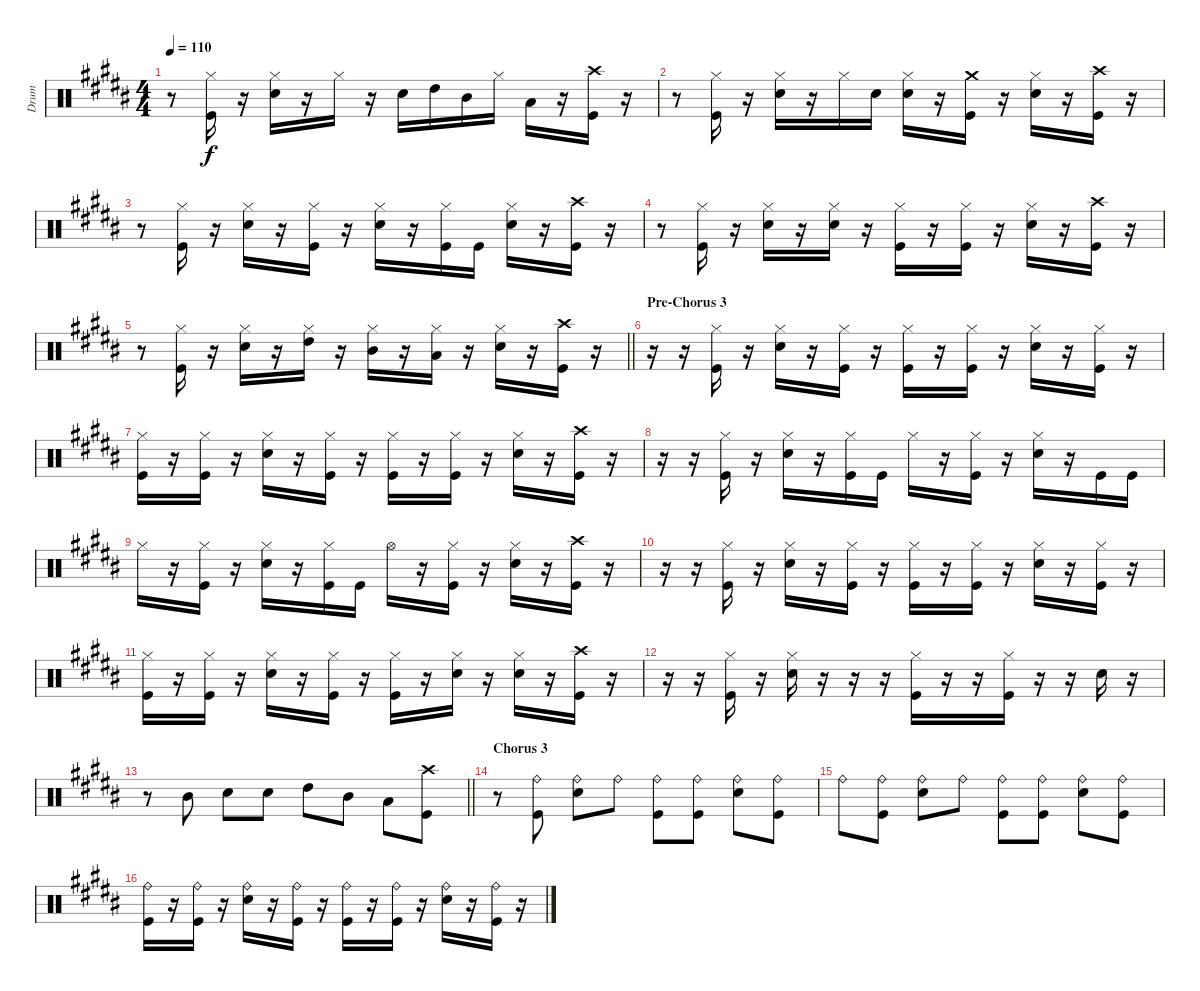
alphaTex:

\track ("Drum" "Drum") {instrument percussion}
\staff {score}
\articulation defaults
\ts (4 4)
\tempo 110
\clef neutral
\ks g#minor
r.8{dy f} ("Kick (hit)" "Hi-Hat (closed)").16 r.16 ("Snare (hit) 2" "Hi-Hat (closed)").16 r.16 "Hi-Hat (closed)".16 r.16 "Snare (hit) 2".16 "High Tom (hit)".16 "Mid Tom (hit)".16 "Hi-Hat (closed)".16 "Low Tom (hit)".16 r.16 ("Kick (hit)" "Crash high (hit)").16 r.16 |
r.8 ("Kick (hit)" "Hi-Hat (closed)").16 r.16 ("Snare (hit) 2" "Hi-Hat (closed)").16 r.16 "Hi-Hat (closed)".16 "Snare (hit) 2".16 ("Snare (hit) 2" "Hi-Hat (closed)").16 r.16 ("Kick (hit)" "Crash medium (hit)").16 r.16 ("Snare (hit) 2" "Hi-Hat (closed)").16 r.16 ("Kick (hit)" "Crash high (hit)").16 r.16 |
r.8 ("Kick (hit)" "Hi-Hat (closed)").16 r.16 ("Snare (hit) 2" "Hi-Hat (closed)").16 r.16 ("Kick (hit)" "Hi-Hat (closed)").16 r.16 ("Snare (hit) 2" "Hi-Hat (closed)").16 r.16 ("Kick (hit)" "Hi-Hat (closed)").16 "Kick (hit)".16 ("Snare (hit) 2" "Hi-Hat (closed)").16 r.16 ("Kick (hit)" "Crash high (hit)").16 r.16 |
r.8 ("Kick (hit)" "Hi-Hat (closed)").16 r.16 ("Snare (hit) 2" "Hi-Hat (closed)").16 r.16 ("Snare (hit) 2" "Hi-Hat (closed)").16 r.16 ("Kick (hit)" "Hi-Hat (closed)").16 r.16 ("Kick (hit)" "Hi-Hat (closed)").16 r.16 ("Snare (hit) 2" "Hi-Hat (closed)").16 r.16 ("Kick (hit)" "Crash high (hit)").16 r.16 |
\barLineRight lightlight
r.8 ("Kick (hit)" "Hi-Hat (closed)").16 r.16 ("Snare (hit) 2" "Hi-Hat (closed)").16 r.16 ("High Tom (hit)" "Hi-Hat (closed)").16 r.16 ("Mid Tom (hit)" "Hi-Hat (closed)").16 r.16 ("Low Tom (hit)" "Hi-Hat (closed)").16 r.16 ("Snare (hit) 2" "Hi-Hat (closed)").16 r.16 ("Kick (hit)" "Crash high (hit)").16 r.16 |
\section ("" "Pre-Chorus 3")
\ks b
r.16 r.16 ("Kick (hit)" "Hi-Hat (closed)").16 r.16 ("Snare (hit) 2" "Hi-Hat (closed)").16 r.16 ("Kick (hit)" "Hi-Hat (closed)").16 r.16 ("Kick (hit)" "Hi-Hat (closed)").16 r.16 ("Kick (hit)" "Hi-Hat (closed)").16 r.16 ("Snare (hit) 2" "Hi-Hat (closed)").16 r.16 ("Kick (hit)" "Hi-Hat (closed)").16 r.16 |
\ks g#minor
("Kick (hit)" "Hi-Hat (closed)").16 r.16 ("Kick (hit)" "Hi-Hat (closed)").16 r.16 ("Snare (hit) 2" "Hi-Hat (closed)").16 r.16 ("Kick (hit)" "Hi-Hat (closed)").16 r.16 ("Kick (hit)" "Hi-Hat (closed)").16 r.16 ("Kick (hit)" "Hi-Hat (closed)").16 r.16 ("Snare (hit) 2" "Hi-Hat (closed)").16 r.16 ("Kick (hit)" "Crash high (hit)").16 r.16 |
r.16 r.16 ("Kick (hit)" "Hi-Hat (closed)").16 r.16 ("Snare (hit) 2" "Hi-Hat (closed)").16 r.16 ("Kick (hit)" "Hi-Hat (closed)").16 "Kick (hit)".16 "Hi-Hat (closed)".16 r.16 ("Kick (hit)" "Hi-Hat (closed)").16 r.16 ("Snare (hit) 2" "Hi-Hat (closed)").16 r.16 "Kick (hit)".16 "Kick (hit)".16 |
"Hi-Hat (closed)".16 r.16 ("Kick (hit)" "Hi-Hat (closed)").16 r.16 ("Snare (hit) 2" "Hi-Hat (closed)").16 r.16 ("Kick (hit)" "Hi-Hat (closed)").16 "Kick (hit)".16 "Hi-Hat (open)".16 r.16 ("Kick (hit)" "Hi-Hat (closed)").16 r.16 ("Snare (hit) 2" "Hi-Hat (closed)").16 r.16 ("Kick (hit)" "Crash high (hit)").16 r.16 |
r.16 r.16 ("Kick (hit)" "Hi-Hat (closed)").16 r.16 ("Snare (hit) 2" "Hi-Hat (closed)").16 r.16 ("Kick (hit)" "Hi-Hat (closed)").16 r.16 ("Kick (hit)" "Hi-Hat (closed)").16 r.16 ("Kick (hit)" "Hi-Hat (closed)").16 r.16 ("Snare (hit) 2" "Hi-Hat (closed)").16 r.16 ("Kick (hit)" "Hi-Hat (closed)").16 r.16 |
("Kick (hit)" "Hi-Hat (closed)").16 r.16 ("Kick (hit)" "Hi-Hat (closed)").16 r.16 ("Snare (hit) 2" "Hi-Hat (closed)").16 r.16 ("Kick (hit)" "Hi-Hat (closed)").16 r.16 ("Kick (hit)" "Hi-Hat (closed)").16 r.16 ("Snare (hit) 2" "Hi-Hat (closed)").16 r.16 ("Snare (hit) 2" "Hi-Hat (closed)").16 r.16 ("Kick (hit)" "Crash high (hit)").16 r.16 |
r.16 r.16 ("Kick (hit)" "Hi-Hat (closed)").16 r.16 ("Snare (hit) 2" "Hi-Hat (closed)").16 r.16 r.16 r.16 ("Kick (hit)" "Hi-Hat (closed)").16 r.16 r.16 ("Kick (hit)" "Hi-Hat (closed)").16 r.16 r.16 "Snare (hit) 2".16 r.16 |
\barLineRight lightlight
r.8 "Mid Tom (hit)".8 "Snare (hit) 2".8 "Snare (hit) 2".8 "High Tom (hit)".8 "Mid Tom (hit)".8 "Low Tom (hit)".8 ("Kick (hit)" "Crash high (hit)").8 |
\section ("" "Chorus 3")
\ks b
r.8 ("Kick (hit)" "Ride (bell)").8 ("Snare (hit) 2" "Ride (bell)").8 "Ride (bell)".8 ("Kick (hit)" "Ride (bell)").8 ("Kick (hit)" "Ride (bell)").8 ("Snare (hit) 2" "Ride (bell)").8 ("Kick (hit)" "Ride (bell)").8 |
\ks g#minor "Ride (bell)".8
("Kick (hit)" "Ride (bell)").8 ("Snare (hit) 2" "Ride (bell)").8 "Ride (bell)".8 ("Kick (hit)" "Ride (bell)").8 ("Kick (hit)" "Ride (bell)").8 ("Snare (hit) 2" "Ride (bell)").8 ("Kick (hit)" "Ride (bell)").8 |
("Kick (hit)" "Ride (bell)").16 r.16 ("Kick (hit)" "Ride (bell)").16 r.16 ("Snare (hit) 2" "Ride (bell)").16 r.16 ("Kick (hit)" "Ride (bell)").16 r.16 ("Kick (hit)" "Ride (bell)").16 r.16 ("Kick (hit)" "Ride (bell)").16 r.16 ("Snare (hit) 2" "Ride (bell)").16 r.16 ("Kick (hit)" "Ride (bell)").16 r.16
